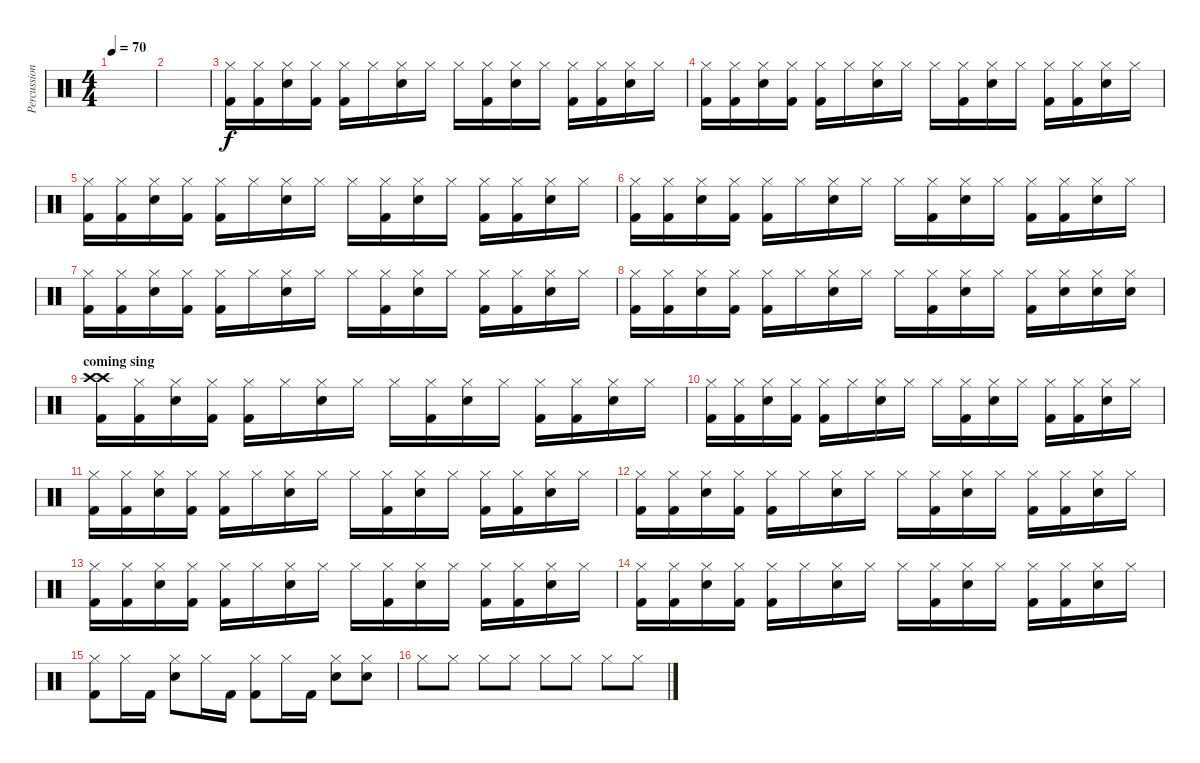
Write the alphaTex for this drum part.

\track ("Percussioni" "Percussion") {instrument percussion}
\staff {score}
\articulation defaults
\ts (4 4)
\tempo 70
\clef neutral
\ks c
|
|
("Hi-Hat (closed)" "Kick (hit) 2").16 ("Hi-Hat (closed)" "Kick (hit) 2").16 ("Hi-Hat (closed)" "Snare (hit) 2").16 ("Hi-Hat (closed)" "Kick (hit) 2").16 ("Hi-Hat (closed)" "Kick (hit) 2").16 "Hi-Hat (closed)".16 ("Hi-Hat (closed)" "Snare (hit) 2").16 "Hi-Hat (closed)".16 "Hi-Hat (closed)".16 ("Hi-Hat (closed)" "Kick (hit) 2").16 ("Hi-Hat (closed)" "Snare (hit) 2").16 "Hi-Hat (closed)".16 ("Hi-Hat (closed)" "Kick (hit) 2").16 ("Hi-Hat (closed)" "Kick (hit) 2").16 ("Hi-Hat (closed)" "Snare (hit) 2").16 "Hi-Hat (closed)".16 |
("Hi-Hat (closed)" "Kick (hit) 2").16 ("Hi-Hat (closed)" "Kick (hit) 2").16 ("Hi-Hat (closed)" "Snare (hit) 2").16 ("Hi-Hat (closed)" "Kick (hit) 2").16 ("Hi-Hat (closed)" "Kick (hit) 2").16 "Hi-Hat (closed)".16 ("Hi-Hat (closed)" "Snare (hit) 2").16 "Hi-Hat (closed)".16 "Hi-Hat (closed)".16 ("Hi-Hat (closed)" "Kick (hit) 2").16 ("Hi-Hat (closed)" "Snare (hit) 2").16 "Hi-Hat (closed)".16 ("Hi-Hat (closed)" "Kick (hit) 2").16 ("Hi-Hat (closed)" "Kick (hit) 2").16 ("Hi-Hat (closed)" "Snare (hit) 2").16 "Hi-Hat (closed)".16 |
("Hi-Hat (closed)" "Kick (hit) 2").16 ("Hi-Hat (closed)" "Kick (hit) 2").16 ("Hi-Hat (closed)" "Snare (hit) 2").16 ("Hi-Hat (closed)" "Kick (hit) 2").16 ("Hi-Hat (closed)" "Kick (hit) 2").16 "Hi-Hat (closed)".16 ("Hi-Hat (closed)" "Snare (hit) 2").16 "Hi-Hat (closed)".16 "Hi-Hat (closed)".16 ("Hi-Hat (closed)" "Kick (hit) 2").16 ("Hi-Hat (closed)" "Snare (hit) 2").16 "Hi-Hat (closed)".16 ("Hi-Hat (closed)" "Kick (hit) 2").16 ("Hi-Hat (closed)" "Kick (hit) 2").16 ("Hi-Hat (closed)" "Snare (hit) 2").16 "Hi-Hat (closed)".16 |
("Hi-Hat (closed)" "Kick (hit) 2").16 ("Hi-Hat (closed)" "Kick (hit) 2").16 ("Hi-Hat (closed)" "Snare (hit) 2").16 ("Hi-Hat (closed)" "Kick (hit) 2").16 ("Hi-Hat (closed)" "Kick (hit) 2").16 "Hi-Hat (closed)".16 ("Hi-Hat (closed)" "Snare (hit) 2").16 "Hi-Hat (closed)".16 "Hi-Hat (closed)".16 ("Hi-Hat (closed)" "Kick (hit) 2").16 ("Hi-Hat (closed)" "Snare (hit) 2").16 "Hi-Hat (closed)".16 ("Hi-Hat (closed)" "Kick (hit) 2").16 ("Hi-Hat (closed)" "Kick (hit) 2").16 ("Hi-Hat (closed)" "Snare (hit) 2").16 "Hi-Hat (closed)".16 |
("Hi-Hat (closed)" "Kick (hit) 2").16 ("Hi-Hat (closed)" "Kick (hit) 2").16 ("Hi-Hat (closed)" "Snare (hit) 2").16 ("Hi-Hat (closed)" "Kick (hit) 2").16 ("Hi-Hat (closed)" "Kick (hit) 2").16 "Hi-Hat (closed)".16 ("Hi-Hat (closed)" "Snare (hit) 2").16 "Hi-Hat (closed)".16 "Hi-Hat (closed)".16 ("Hi-Hat (closed)" "Kick (hit) 2").16 ("Hi-Hat (closed)" "Snare (hit) 2").16 "Hi-Hat (closed)".16 ("Hi-Hat (closed)" "Kick (hit) 2").16 ("Hi-Hat (closed)" "Kick (hit) 2").16 ("Hi-Hat (closed)" "Snare (hit) 2").16 "Hi-Hat (closed)".16 |
("Hi-Hat (closed)" "Kick (hit) 2").16 ("Hi-Hat (closed)" "Kick (hit) 2").16 ("Hi-Hat (closed)" "Snare (hit) 2").16 ("Hi-Hat (closed)" "Kick (hit) 2").16 ("Hi-Hat (closed)" "Kick (hit) 2").16 "Hi-Hat (closed)".16 ("Hi-Hat (closed)" "Snare (hit) 2").16 "Hi-Hat (closed)".16 "Hi-Hat (closed)".16 ("Hi-Hat (closed)" "Kick (hit) 2").16 ("Hi-Hat (closed)" "Snare (hit) 2").16 "Hi-Hat (closed)".16 ("Hi-Hat (closed)" "Kick (hit) 2").16 ("Hi-Hat (closed)" "Snare (hit) 2").16 ("Hi-Hat (closed)" "Snare (hit) 2").16 ("Hi-Hat (closed)" "Snare (hit) 2").16 |
\section ("" "coming sing")
("Crash high (hit)" "Crash high (hit)" "Kick (hit) 2").16 ("Hi-Hat (closed)" "Kick (hit) 2").16 ("Hi-Hat (closed)" "Snare (hit) 2").16 ("Hi-Hat (closed)" "Kick (hit) 2").16 ("Hi-Hat (closed)" "Kick (hit) 2").16 "Hi-Hat (closed)".16 ("Hi-Hat (closed)" "Snare (hit) 2").16 "Hi-Hat (closed)".16 "Hi-Hat (closed)".16 ("Hi-Hat (closed)" "Kick (hit) 2").16 ("Hi-Hat (closed)" "Snare (hit) 2").16 "Hi-Hat (closed)".16 ("Hi-Hat (closed)" "Kick (hit) 2").16 ("Hi-Hat (closed)" "Kick (hit) 2").16 ("Hi-Hat (closed)" "Snare (hit) 2").16 "Hi-Hat (closed)".16 |
("Hi-Hat (closed)" "Kick (hit) 2").16 ("Hi-Hat (closed)" "Kick (hit) 2").16 ("Hi-Hat (closed)" "Snare (hit) 2").16 ("Hi-Hat (closed)" "Kick (hit) 2").16 ("Hi-Hat (closed)" "Kick (hit) 2").16 "Hi-Hat (closed)".16 ("Hi-Hat (closed)" "Snare (hit) 2").16 "Hi-Hat (closed)".16 "Hi-Hat (closed)".16 ("Hi-Hat (closed)" "Kick (hit) 2").16 ("Hi-Hat (closed)" "Snare (hit) 2").16 "Hi-Hat (closed)".16 ("Hi-Hat (closed)" "Kick (hit) 2").16 ("Hi-Hat (closed)" "Kick (hit) 2").16 ("Hi-Hat (closed)" "Snare (hit) 2").16 "Hi-Hat (closed)".16 |
("Hi-Hat (closed)" "Kick (hit) 2").16 ("Hi-Hat (closed)" "Kick (hit) 2").16 ("Hi-Hat (closed)" "Snare (hit) 2").16 ("Hi-Hat (closed)" "Kick (hit) 2").16 ("Hi-Hat (closed)" "Kick (hit) 2").16 "Hi-Hat (closed)".16 ("Hi-Hat (closed)" "Snare (hit) 2").16 "Hi-Hat (closed)".16 "Hi-Hat (closed)".16 ("Hi-Hat (closed)" "Kick (hit) 2").16 ("Hi-Hat (closed)" "Snare (hit) 2").16 "Hi-Hat (closed)".16 ("Hi-Hat (closed)" "Kick (hit) 2").16 ("Hi-Hat (closed)" "Kick (hit) 2").16 ("Hi-Hat (closed)" "Snare (hit) 2").16 "Hi-Hat (closed)".16 |
("Hi-Hat (closed)" "Kick (hit) 2").16 ("Hi-Hat (closed)" "Kick (hit) 2").16 ("Hi-Hat (closed)" "Snare (hit) 2").16 ("Hi-Hat (closed)" "Kick (hit) 2").16 ("Hi-Hat (closed)" "Kick (hit) 2").16 "Hi-Hat (closed)".16 ("Hi-Hat (closed)" "Snare (hit) 2").16 "Hi-Hat (closed)".16 "Hi-Hat (closed)".16 ("Hi-Hat (closed)" "Kick (hit) 2").16 ("Hi-Hat (closed)" "Snare (hit) 2").16 "Hi-Hat (closed)".16 ("Hi-Hat (closed)" "Kick (hit) 2").16 ("Hi-Hat (closed)" "Kick (hit) 2").16 ("Hi-Hat (closed)" "Snare (hit) 2").16 "Hi-Hat (closed)".16 |
("Hi-Hat (closed)" "Kick (hit) 2").16 ("Hi-Hat (closed)" "Kick (hit) 2").16 ("Hi-Hat (closed)" "Snare (hit) 2").16 ("Hi-Hat (closed)" "Kick (hit) 2").16 ("Hi-Hat (closed)" "Kick (hit) 2").16 "Hi-Hat (closed)".16 ("Hi-Hat (closed)" "Snare (hit) 2").16 "Hi-Hat (closed)".16 "Hi-Hat (closed)".16 ("Hi-Hat (closed)" "Kick (hit) 2").16 ("Hi-Hat (closed)" "Snare (hit) 2").16 "Hi-Hat (closed)".16 ("Hi-Hat (closed)" "Kick (hit) 2").16 ("Hi-Hat (closed)" "Kick (hit) 2").16 ("Hi-Hat (closed)" "Snare (hit) 2").16 "Hi-Hat (closed)".16 |
("Hi-Hat (closed)" "Kick (hit) 2").16 ("Hi-Hat (closed)" "Kick (hit) 2").16 ("Hi-Hat (closed)" "Snare (hit) 2").16 ("Hi-Hat (closed)" "Kick (hit) 2").16 ("Hi-Hat (closed)" "Kick (hit) 2").16 "Hi-Hat (closed)".16 ("Hi-Hat (closed)" "Snare (hit) 2").16 "Hi-Hat (closed)".16 "Hi-Hat (closed)".16 ("Hi-Hat (closed)" "Kick (hit) 2").16 ("Hi-Hat (closed)" "Snare (hit) 2").16 "Hi-Hat (closed)".16 ("Hi-Hat (closed)" "Kick (hit) 2").16 ("Hi-Hat (closed)" "Kick (hit) 2").16 ("Hi-Hat (closed)" "Snare (hit) 2").16 "Hi-Hat (closed)".16 |
("Hi-Hat (closed)" "Kick (hit) 2").8 "Hi-Hat (closed)".16 "Kick (hit) 2".16 ("Hi-Hat (closed)" "Snare (hit) 2").8 "Hi-Hat (closed)".16 "Kick (hit) 2".16 ("Hi-Hat (closed)" "Kick (hit) 2").8 "Hi-Hat (closed)".16 "Kick (hit) 2".16 ("Hi-Hat (closed)" "Snare (hit) 2").8 ("Hi-Hat (closed)" "Snare (hit) 2").8 |
"Hi-Hat (closed)".8 "Hi-Hat (closed)".8 "Hi-Hat (closed)".8 "Hi-Hat (closed)".8 "Hi-Hat (closed)".8 "Hi-Hat (closed)".8 "Hi-Hat (closed)".8 "Hi-Hat (closed)".8
